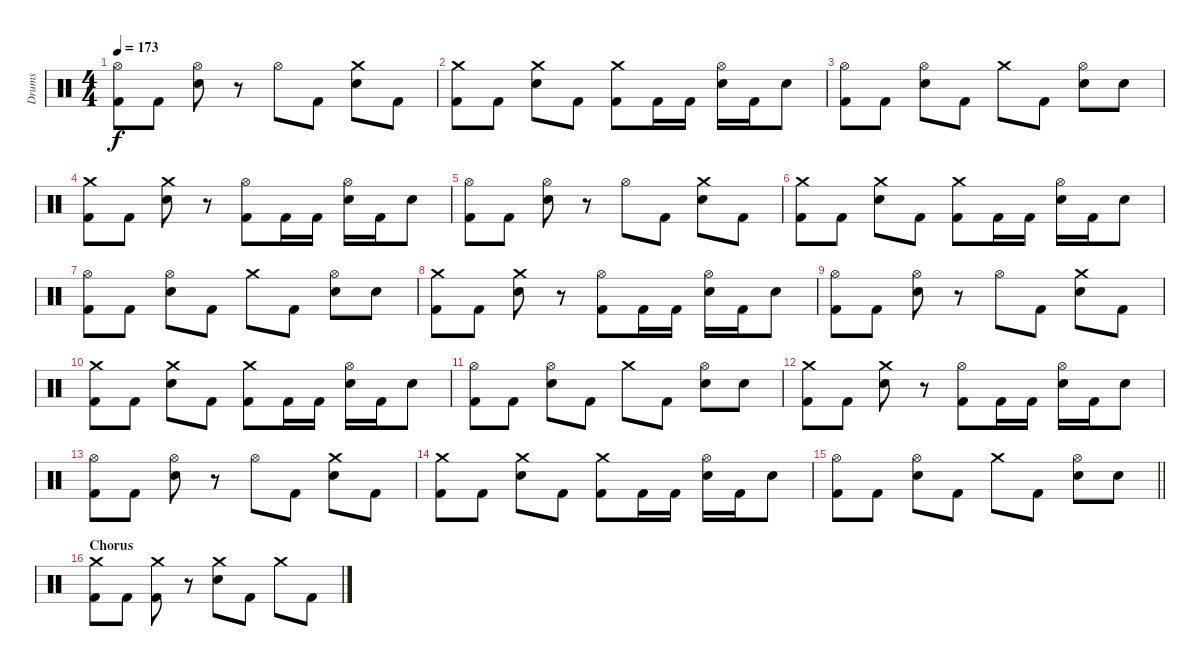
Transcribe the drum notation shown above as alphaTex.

\track ("Drums" "Drums") {instrument percussion}
\staff {score}
\articulation defaults
\ts (4 4)
\tempo 173
\clef neutral
\ks c
("Hi-Hat (open)" "Kick (hit) 2").8{dy f} "Kick (hit) 2".8 ("Hi-Hat (open)" "Snare (hit) 2").8 r.8 "Hi-Hat (open)".8 "Kick (hit) 2".8 ("Crash medium (hit)" "Snare (hit) 2").8 "Kick (hit) 2".8 |
("Crash medium (hit)" "Kick (hit) 2").8 "Kick (hit) 2".8 ("Crash medium (hit)" "Snare (hit) 2").8 "Kick (hit) 2".8 ("Crash medium (hit)" "Kick (hit) 2").8 "Kick (hit) 2".16 "Kick (hit) 2".16 ("Hi-Hat (open)" "Snare (hit) 2").16 "Kick (hit) 2".16 "Snare (hit) 2".8 |
("Hi-Hat (open)" "Kick (hit) 2").8 "Kick (hit) 2".8 ("Hi-Hat (open)" "Snare (hit) 2").8 "Kick (hit) 2".8 "Crash medium (hit)".8 "Kick (hit) 2".8 ("Hi-Hat (open)" "Snare (hit) 2").8 "Snare (hit) 2".8 |
("Crash medium (hit)" "Kick (hit) 2").8 "Kick (hit) 2".8 ("Crash medium (hit)" "Snare (hit) 2").8 r.8 ("Hi-Hat (open)" "Kick (hit) 2").8 "Kick (hit) 2".16 "Kick (hit) 2".16 ("Hi-Hat (open)" "Snare (hit) 2").16 "Kick (hit) 2".16 "Snare (hit) 2".8 |
("Hi-Hat (open)" "Kick (hit) 2").8 "Kick (hit) 2".8 ("Hi-Hat (open)" "Snare (hit) 2").8 r.8 "Hi-Hat (open)".8 "Kick (hit) 2".8 ("Crash medium (hit)" "Snare (hit) 2").8 "Kick (hit) 2".8 |
("Crash medium (hit)" "Kick (hit) 2").8 "Kick (hit) 2".8 ("Crash medium (hit)" "Snare (hit) 2").8 "Kick (hit) 2".8 ("Crash medium (hit)" "Kick (hit) 2").8 "Kick (hit) 2".16 "Kick (hit) 2".16 ("Hi-Hat (open)" "Snare (hit) 2").16 "Kick (hit) 2".16 "Snare (hit) 2".8 |
("Hi-Hat (open)" "Kick (hit) 2").8 "Kick (hit) 2".8 ("Hi-Hat (open)" "Snare (hit) 2").8 "Kick (hit) 2".8 "Crash medium (hit)".8 "Kick (hit) 2".8 ("Hi-Hat (open)" "Snare (hit) 2").8 "Snare (hit) 2".8 |
("Crash medium (hit)" "Kick (hit) 2").8 "Kick (hit) 2".8 ("Crash medium (hit)" "Snare (hit) 2").8 r.8 ("Hi-Hat (open)" "Kick (hit) 2").8 "Kick (hit) 2".16 "Kick (hit) 2".16 ("Hi-Hat (open)" "Snare (hit) 2").16 "Kick (hit) 2".16 "Snare (hit) 2".8 |
("Hi-Hat (open)" "Kick (hit) 2").8 "Kick (hit) 2".8 ("Hi-Hat (open)" "Snare (hit) 2").8 r.8 "Hi-Hat (open)".8 "Kick (hit) 2".8 ("Crash medium (hit)" "Snare (hit) 2").8 "Kick (hit) 2".8 |
("Crash medium (hit)" "Kick (hit) 2").8 "Kick (hit) 2".8 ("Crash medium (hit)" "Snare (hit) 2").8 "Kick (hit) 2".8 ("Crash medium (hit)" "Kick (hit) 2").8 "Kick (hit) 2".16 "Kick (hit) 2".16 ("Hi-Hat (open)" "Snare (hit) 2").16 "Kick (hit) 2".16 "Snare (hit) 2".8 |
("Hi-Hat (open)" "Kick (hit) 2").8 "Kick (hit) 2".8 ("Hi-Hat (open)" "Snare (hit) 2").8 "Kick (hit) 2".8 "Crash medium (hit)".8 "Kick (hit) 2".8 ("Hi-Hat (open)" "Snare (hit) 2").8 "Snare (hit) 2".8 |
("Crash medium (hit)" "Kick (hit) 2").8 "Kick (hit) 2".8 ("Crash medium (hit)" "Snare (hit) 2").8 r.8 ("Hi-Hat (open)" "Kick (hit) 2").8 "Kick (hit) 2".16 "Kick (hit) 2".16 ("Hi-Hat (open)" "Snare (hit) 2").16 "Kick (hit) 2".16 "Snare (hit) 2".8 |
("Hi-Hat (open)" "Kick (hit) 2").8 "Kick (hit) 2".8 ("Hi-Hat (open)" "Snare (hit) 2").8 r.8 "Hi-Hat (open)".8 "Kick (hit) 2".8 ("Crash medium (hit)" "Snare (hit) 2").8 "Kick (hit) 2".8 |
("Crash medium (hit)" "Kick (hit) 2").8 "Kick (hit) 2".8 ("Crash medium (hit)" "Snare (hit) 2").8 "Kick (hit) 2".8 ("Crash medium (hit)" "Kick (hit) 2").8 "Kick (hit) 2".16 "Kick (hit) 2".16 ("Hi-Hat (open)" "Snare (hit) 2").16 "Kick (hit) 2".16 "Snare (hit) 2".8 |
\barLineRight lightlight
("Hi-Hat (open)" "Kick (hit) 2").8 "Kick (hit) 2".8 ("Hi-Hat (open)" "Snare (hit) 2").8 "Kick (hit) 2".8 "Crash medium (hit)".8 "Kick (hit) 2".8 ("Hi-Hat (open)" "Snare (hit) 2").8 "Snare (hit) 2".8 |
\section ("" "Chorus")
("Crash medium (hit)" "Kick (hit) 2").8 "Kick (hit) 2".8 ("Crash medium (hit)" "Kick (hit) 2").8 r.8 ("Crash medium (hit)" "Snare (hit) 2").8 "Kick (hit) 2".8 "Crash medium (hit)".8 "Kick (hit) 2".8
